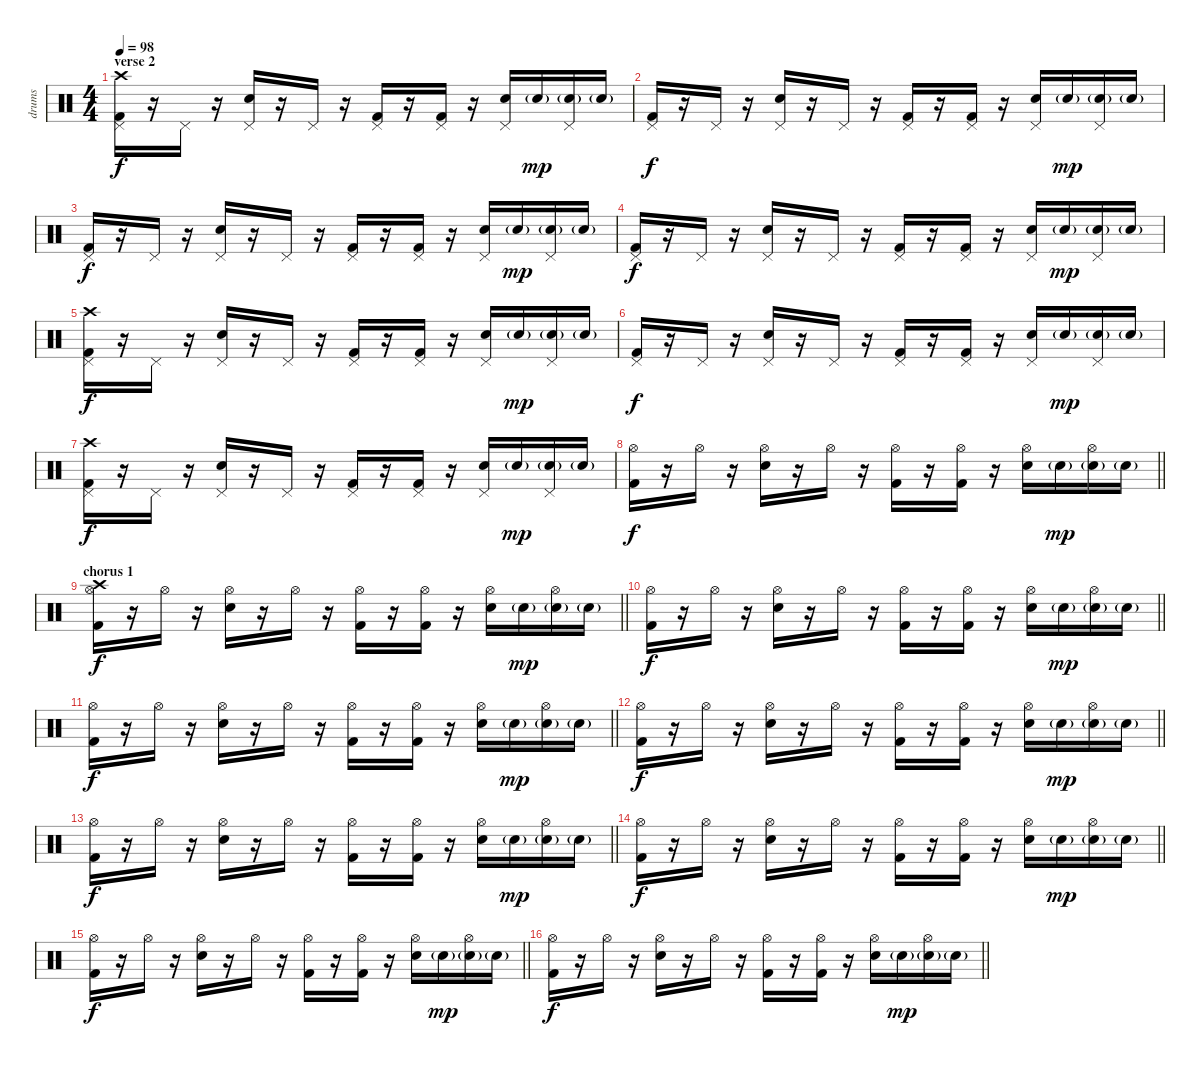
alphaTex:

\track ("drums" "drums") {instrument percussion}
\staff {score}
\articulation defaults
\ts (4 4)
\section ("" "verse 2")
\tempo 98
\clef neutral
\ks c
("Kick (hit) 2" "Pedal Hi-Hat (hit)" "Crash high (hit)").16{dy f} r.16 "Pedal Hi-Hat (hit)".16 r.16 ("Electric Snare (hit)" "Pedal Hi-Hat (hit)").16 r.16 "Pedal Hi-Hat (hit)".16 r.16 ("Kick (hit) 2" "Pedal Hi-Hat (hit)").16 r.16 ("Kick (hit) 2" "Pedal Hi-Hat (hit)").16 r.16 ("Electric Snare (hit)" "Pedal Hi-Hat (hit)").16 "Electric Snare (hit)"{g}.16{dy mp} ("Electric Snare (hit)"{g} "Pedal Hi-Hat (hit)").16 "Electric Snare (hit)"{g}.16 |
("Kick (hit) 2" "Pedal Hi-Hat (hit)").16{dy f} r.16 "Pedal Hi-Hat (hit)".16 r.16 ("Electric Snare (hit)" "Pedal Hi-Hat (hit)").16 r.16 "Pedal Hi-Hat (hit)".16 r.16 ("Kick (hit) 2" "Pedal Hi-Hat (hit)").16 r.16 ("Kick (hit) 2" "Pedal Hi-Hat (hit)").16 r.16 ("Electric Snare (hit)" "Pedal Hi-Hat (hit)").16 "Electric Snare (hit)"{g}.16{dy mp} ("Electric Snare (hit)"{g} "Pedal Hi-Hat (hit)").16 "Electric Snare (hit)"{g}.16 |
("Kick (hit) 2" "Pedal Hi-Hat (hit)").16{dy f} r.16 "Pedal Hi-Hat (hit)".16 r.16 ("Electric Snare (hit)" "Pedal Hi-Hat (hit)").16 r.16 "Pedal Hi-Hat (hit)".16 r.16 ("Kick (hit) 2" "Pedal Hi-Hat (hit)").16 r.16 ("Kick (hit) 2" "Pedal Hi-Hat (hit)").16 r.16 ("Electric Snare (hit)" "Pedal Hi-Hat (hit)").16 "Electric Snare (hit)"{g}.16{dy mp} ("Electric Snare (hit)"{g} "Pedal Hi-Hat (hit)").16 "Electric Snare (hit)"{g}.16 |
("Kick (hit) 2" "Pedal Hi-Hat (hit)").16{dy f} r.16 "Pedal Hi-Hat (hit)".16 r.16 ("Electric Snare (hit)" "Pedal Hi-Hat (hit)").16 r.16 "Pedal Hi-Hat (hit)".16 r.16 ("Kick (hit) 2" "Pedal Hi-Hat (hit)").16 r.16 ("Kick (hit) 2" "Pedal Hi-Hat (hit)").16 r.16 ("Electric Snare (hit)" "Pedal Hi-Hat (hit)").16 "Electric Snare (hit)"{g}.16{dy mp} ("Electric Snare (hit)"{g} "Pedal Hi-Hat (hit)").16 "Electric Snare (hit)"{g}.16 |
("Kick (hit) 2" "Pedal Hi-Hat (hit)" "Crash high (hit)").16{dy f} r.16 "Pedal Hi-Hat (hit)".16 r.16 ("Electric Snare (hit)" "Pedal Hi-Hat (hit)").16 r.16 "Pedal Hi-Hat (hit)".16 r.16 ("Kick (hit) 2" "Pedal Hi-Hat (hit)").16 r.16 ("Kick (hit) 2" "Pedal Hi-Hat (hit)").16 r.16 ("Electric Snare (hit)" "Pedal Hi-Hat (hit)").16 "Electric Snare (hit)"{g}.16{dy mp} ("Electric Snare (hit)"{g} "Pedal Hi-Hat (hit)").16 "Electric Snare (hit)"{g}.16 |
("Kick (hit) 2" "Pedal Hi-Hat (hit)").16{dy f} r.16 "Pedal Hi-Hat (hit)".16 r.16 ("Electric Snare (hit)" "Pedal Hi-Hat (hit)").16 r.16 "Pedal Hi-Hat (hit)".16 r.16 ("Kick (hit) 2" "Pedal Hi-Hat (hit)").16 r.16 ("Kick (hit) 2" "Pedal Hi-Hat (hit)").16 r.16 ("Electric Snare (hit)" "Pedal Hi-Hat (hit)").16 "Electric Snare (hit)"{g}.16{dy mp} ("Electric Snare (hit)"{g} "Pedal Hi-Hat (hit)").16 "Electric Snare (hit)"{g}.16 |
("Kick (hit) 2" "Pedal Hi-Hat (hit)" "Crash high (hit)").16{dy f} r.16 "Pedal Hi-Hat (hit)".16 r.16 ("Electric Snare (hit)" "Pedal Hi-Hat (hit)").16 r.16 "Pedal Hi-Hat (hit)".16 r.16 ("Kick (hit) 2" "Pedal Hi-Hat (hit)").16 r.16 ("Kick (hit) 2" "Pedal Hi-Hat (hit)").16 r.16 ("Electric Snare (hit)" "Pedal Hi-Hat (hit)").16 "Electric Snare (hit)"{g}.16{dy mp} ("Electric Snare (hit)"{g} "Pedal Hi-Hat (hit)").16 "Electric Snare (hit)"{g}.16 |
\barLineRight lightlight
("Kick (hit) 2" "Hi-Hat (open)").16{dy f} r.16 "Hi-Hat (open)".16 r.16 ("Electric Snare (hit)" "Hi-Hat (open)").16 r.16 "Hi-Hat (open)".16 r.16 ("Kick (hit) 2" "Hi-Hat (open)").16 r.16 ("Kick (hit) 2" "Hi-Hat (open)").16 r.16 ("Electric Snare (hit)" "Hi-Hat (open)").16 "Electric Snare (hit)"{g}.16{dy mp} ("Electric Snare (hit)"{g} "Hi-Hat (open)").16 "Electric Snare (hit)"{g}.16 |
\section ("" "chorus 1")
\barLineRight lightlight
("Kick (hit) 2" "Hi-Hat (open)" "Crash high (hit)").16{dy f} r.16 "Hi-Hat (open)".16 r.16 ("Electric Snare (hit)" "Hi-Hat (open)").16 r.16 "Hi-Hat (open)".16 r.16 ("Kick (hit) 2" "Hi-Hat (open)").16 r.16 ("Kick (hit) 2" "Hi-Hat (open)").16 r.16 ("Electric Snare (hit)" "Hi-Hat (open)").16 "Electric Snare (hit)"{g}.16{dy mp} ("Electric Snare (hit)"{g} "Hi-Hat (open)").16 "Electric Snare (hit)"{g}.16 |
\barLineRight lightlight
("Kick (hit) 2" "Hi-Hat (open)").16{dy f} r.16 "Hi-Hat (open)".16 r.16 ("Electric Snare (hit)" "Hi-Hat (open)").16 r.16 "Hi-Hat (open)".16 r.16 ("Kick (hit) 2" "Hi-Hat (open)").16 r.16 ("Kick (hit) 2" "Hi-Hat (open)").16 r.16 ("Electric Snare (hit)" "Hi-Hat (open)").16 "Electric Snare (hit)"{g}.16{dy mp} ("Electric Snare (hit)"{g} "Hi-Hat (open)").16 "Electric Snare (hit)"{g}.16 |
\barLineRight lightlight
("Kick (hit) 2" "Hi-Hat (open)").16{dy f} r.16 "Hi-Hat (open)".16 r.16 ("Electric Snare (hit)" "Hi-Hat (open)").16 r.16 "Hi-Hat (open)".16 r.16 ("Kick (hit) 2" "Hi-Hat (open)").16 r.16 ("Kick (hit) 2" "Hi-Hat (open)").16 r.16 ("Electric Snare (hit)" "Hi-Hat (open)").16 "Electric Snare (hit)"{g}.16{dy mp} ("Electric Snare (hit)"{g} "Hi-Hat (open)").16 "Electric Snare (hit)"{g}.16 |
\barLineRight lightlight
("Kick (hit) 2" "Hi-Hat (open)").16{dy f} r.16 "Hi-Hat (open)".16 r.16 ("Electric Snare (hit)" "Hi-Hat (open)").16 r.16 "Hi-Hat (open)".16 r.16 ("Kick (hit) 2" "Hi-Hat (open)").16 r.16 ("Kick (hit) 2" "Hi-Hat (open)").16 r.16 ("Electric Snare (hit)" "Hi-Hat (open)").16 "Electric Snare (hit)"{g}.16{dy mp} ("Electric Snare (hit)"{g} "Hi-Hat (open)").16 "Electric Snare (hit)"{g}.16 |
\barLineRight lightlight
("Kick (hit) 2" "Hi-Hat (open)").16{dy f} r.16 "Hi-Hat (open)".16 r.16 ("Electric Snare (hit)" "Hi-Hat (open)").16 r.16 "Hi-Hat (open)".16 r.16 ("Kick (hit) 2" "Hi-Hat (open)").16 r.16 ("Kick (hit) 2" "Hi-Hat (open)").16 r.16 ("Electric Snare (hit)" "Hi-Hat (open)").16 "Electric Snare (hit)"{g}.16{dy mp} ("Electric Snare (hit)"{g} "Hi-Hat (open)").16 "Electric Snare (hit)"{g}.16 |
\barLineRight lightlight
("Kick (hit) 2" "Hi-Hat (open)").16{dy f} r.16 "Hi-Hat (open)".16 r.16 ("Electric Snare (hit)" "Hi-Hat (open)").16 r.16 "Hi-Hat (open)".16 r.16 ("Kick (hit) 2" "Hi-Hat (open)").16 r.16 ("Kick (hit) 2" "Hi-Hat (open)").16 r.16 ("Electric Snare (hit)" "Hi-Hat (open)").16 "Electric Snare (hit)"{g}.16{dy mp} ("Electric Snare (hit)"{g} "Hi-Hat (open)").16 "Electric Snare (hit)"{g}.16 |
\barLineRight lightlight
("Kick (hit) 2" "Hi-Hat (open)").16{dy f} r.16 "Hi-Hat (open)".16 r.16 ("Electric Snare (hit)" "Hi-Hat (open)").16 r.16 "Hi-Hat (open)".16 r.16 ("Kick (hit) 2" "Hi-Hat (open)").16 r.16 ("Kick (hit) 2" "Hi-Hat (open)").16 r.16 ("Electric Snare (hit)" "Hi-Hat (open)").16 "Electric Snare (hit)"{g}.16{dy mp} ("Electric Snare (hit)"{g} "Hi-Hat (open)").16 "Electric Snare (hit)"{g}.16 |
\barLineRight lightlight
("Kick (hit) 2" "Hi-Hat (open)").16{dy f} r.16 "Hi-Hat (open)".16 r.16 ("Electric Snare (hit)" "Hi-Hat (open)").16 r.16 "Hi-Hat (open)".16 r.16 ("Kick (hit) 2" "Hi-Hat (open)").16 r.16 ("Kick (hit) 2" "Hi-Hat (open)").16 r.16 ("Electric Snare (hit)" "Hi-Hat (open)").16 "Electric Snare (hit)"{g}.16{dy mp} ("Electric Snare (hit)"{g} "Hi-Hat (open)").16 "Electric Snare (hit)"{g}.16
